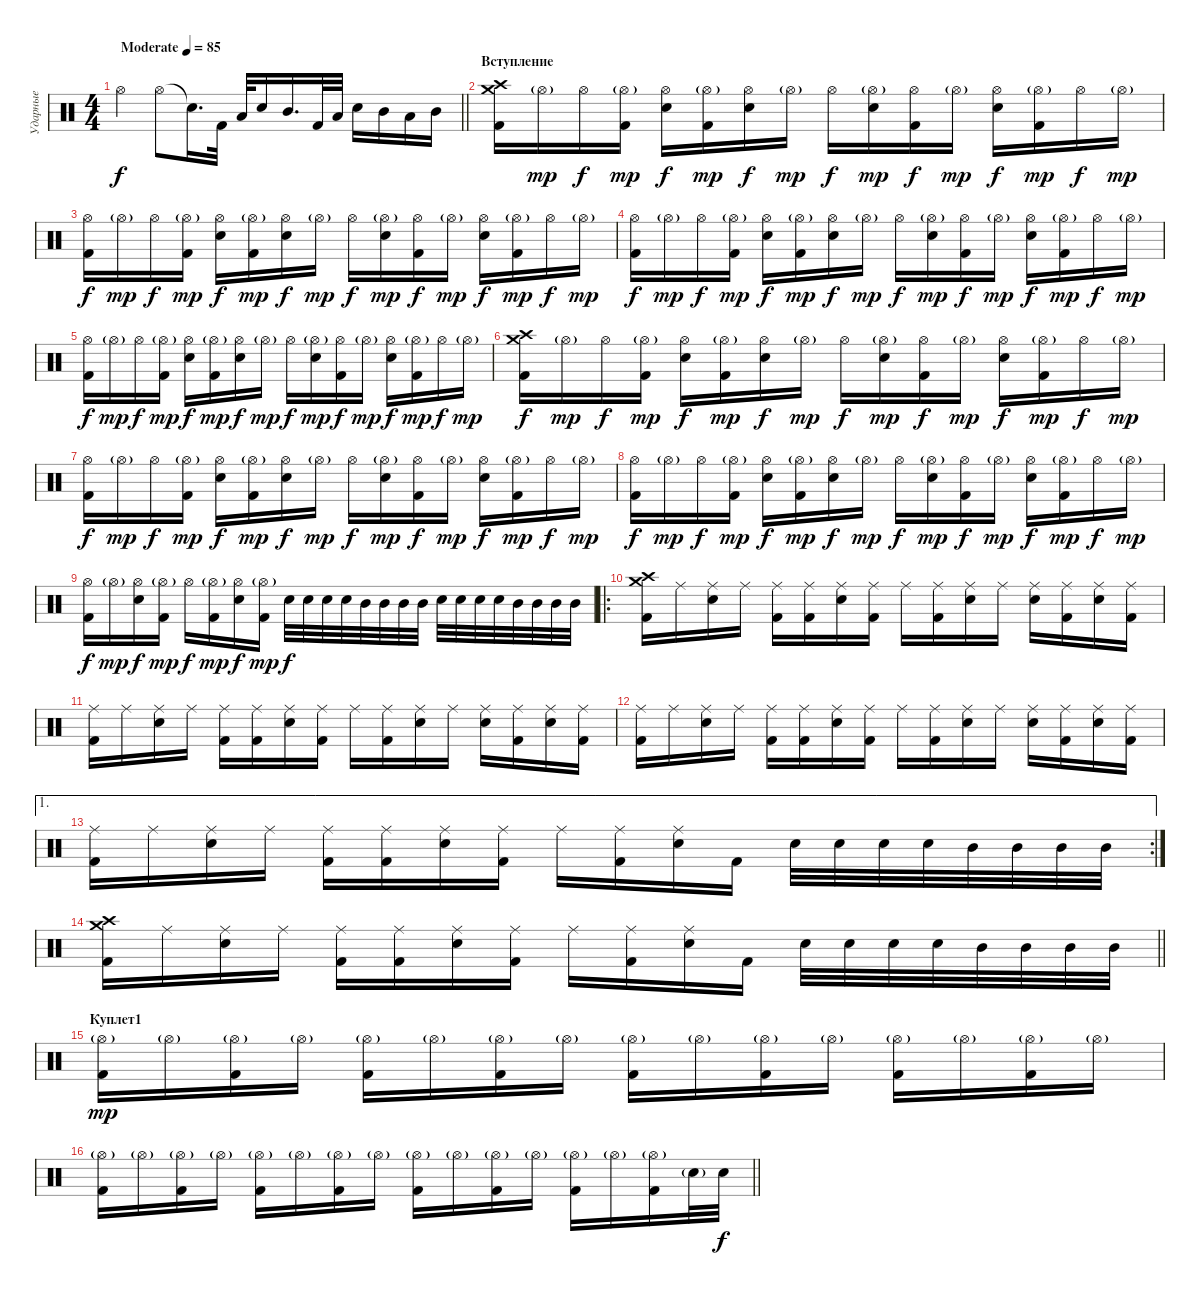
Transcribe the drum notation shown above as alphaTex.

\track ("Ударные" "Ударные") {instrument percussion}
\staff {score}
\articulation defaults
\ts (4 4)
\tempo (85 "Moderate")
\clef neutral
\barLineRight lightlight
\ks c "Hi-Hat (open)".4{dy f} "Hi-Hat (open)".8 "Snare (hit)"{t}.16{d} "Kick (hit) 2".32 "Low Tom (hit)".32 "Electric Snare (hit)".16 "Mid Tom (hit)".16{d} "Kick (hit) 2".32 "Low Tom (hit)".32 "Electric Snare (hit)".16 "Mid Tom (hit)".16 "Low Tom (hit)".16 "Mid Tom (hit)".16
|
\section ("" "Вступление")
("Crash high (hit)" "Crash medium (hit)" "Kick (hit) 2").16 "Hi-Hat (open)"{g}.16{dy mp} "Hi-Hat (open)".16{dy f} ("Hi-Hat (open)"{g} "Kick (hit) 2").16{dy mp} ("Hi-Hat (open)" "Electric Snare (hit)").16{dy f} ("Hi-Hat (open)"{g} "Kick (hit) 2").16{dy mp} ("Hi-Hat (open)" "Electric Snare (hit)").16{dy f} "Hi-Hat (open)"{g}.16{dy mp} "Hi-Hat (open)".16{dy f} ("Hi-Hat (open)"{g} "Electric Snare (hit)").16{dy mp} ("Hi-Hat (open)" "Kick (hit) 2").16{dy f} "Hi-Hat (open)"{g}.16{dy mp} ("Hi-Hat (open)" "Electric Snare (hit)").16{dy f} ("Hi-Hat (open)"{g} "Kick (hit) 2").16{dy mp} "Hi-Hat (open)".16{dy f} "Hi-Hat (open)"{g}.16{dy mp} |
("Hi-Hat (open)" "Kick (hit) 2").16{dy f} "Hi-Hat (open)"{g}.16{dy mp} "Hi-Hat (open)".16{dy f} ("Hi-Hat (open)"{g} "Kick (hit) 2").16{dy mp} ("Hi-Hat (open)" "Electric Snare (hit)").16{dy f} ("Hi-Hat (open)"{g} "Kick (hit) 2").16{dy mp} ("Hi-Hat (open)" "Electric Snare (hit)").16{dy f} "Hi-Hat (open)"{g}.16{dy mp} "Hi-Hat (open)".16{dy f} ("Hi-Hat (open)"{g} "Electric Snare (hit)").16{dy mp} ("Hi-Hat (open)" "Kick (hit) 2").16{dy f} "Hi-Hat (open)"{g}.16{dy mp} ("Hi-Hat (open)" "Electric Snare (hit)").16{dy f} ("Hi-Hat (open)"{g} "Kick (hit) 2").16{dy mp} "Hi-Hat (open)".16{dy f} "Hi-Hat (open)"{g}.16{dy mp} |
("Hi-Hat (open)" "Kick (hit) 2").16{dy f} "Hi-Hat (open)"{g}.16{dy mp} "Hi-Hat (open)".16{dy f} ("Hi-Hat (open)"{g} "Kick (hit) 2").16{dy mp} ("Hi-Hat (open)" "Electric Snare (hit)").16{dy f} ("Hi-Hat (open)"{g} "Kick (hit) 2").16{dy mp} ("Hi-Hat (open)" "Electric Snare (hit)").16{dy f} "Hi-Hat (open)"{g}.16{dy mp} "Hi-Hat (open)".16{dy f} ("Hi-Hat (open)"{g} "Electric Snare (hit)").16{dy mp} ("Hi-Hat (open)" "Kick (hit) 2").16{dy f} "Hi-Hat (open)"{g}.16{dy mp} ("Hi-Hat (open)" "Electric Snare (hit)").16{dy f} ("Hi-Hat (open)"{g} "Kick (hit) 2").16{dy mp} "Hi-Hat (open)".16{dy f} "Hi-Hat (open)"{g}.16{dy mp} |
("Hi-Hat (open)" "Kick (hit) 2").16{dy f} "Hi-Hat (open)"{g}.16{dy mp} "Hi-Hat (open)".16{dy f} ("Hi-Hat (open)"{g} "Kick (hit) 2").16{dy mp} ("Hi-Hat (open)" "Electric Snare (hit)").16{dy f} ("Hi-Hat (open)"{g} "Kick (hit) 2").16{dy mp} ("Hi-Hat (open)" "Electric Snare (hit)").16{dy f} "Hi-Hat (open)"{g}.16{dy mp} "Hi-Hat (open)".16{dy f} ("Hi-Hat (open)"{g} "Electric Snare (hit)").16{dy mp} ("Hi-Hat (open)" "Kick (hit) 2").16{dy f} "Hi-Hat (open)"{g}.16{dy mp} ("Hi-Hat (open)" "Electric Snare (hit)").16{dy f} ("Hi-Hat (open)"{g} "Kick (hit) 2").16{dy mp} "Hi-Hat (open)".16{dy f} "Hi-Hat (open)"{g}.16{dy mp} |
("Crash high (hit)" "Crash medium (hit)" "Kick (hit) 2").16{dy f} "Hi-Hat (open)"{g}.16{dy mp} "Hi-Hat (open)".16{dy f} ("Hi-Hat (open)"{g} "Kick (hit) 2").16{dy mp} ("Hi-Hat (open)" "Electric Snare (hit)").16{dy f} ("Hi-Hat (open)"{g} "Kick (hit) 2").16{dy mp} ("Hi-Hat (open)" "Electric Snare (hit)").16{dy f} "Hi-Hat (open)"{g}.16{dy mp} "Hi-Hat (open)".16{dy f} ("Hi-Hat (open)"{g} "Electric Snare (hit)").16{dy mp} ("Hi-Hat (open)" "Kick (hit) 2").16{dy f} "Hi-Hat (open)"{g}.16{dy mp} ("Hi-Hat (open)" "Electric Snare (hit)").16{dy f} ("Hi-Hat (open)"{g} "Kick (hit) 2").16{dy mp} "Hi-Hat (open)".16{dy f} "Hi-Hat (open)"{g}.16{dy mp} |
("Hi-Hat (open)" "Kick (hit) 2").16{dy f} "Hi-Hat (open)"{g}.16{dy mp} "Hi-Hat (open)".16{dy f} ("Hi-Hat (open)"{g} "Kick (hit) 2").16{dy mp} ("Hi-Hat (open)" "Electric Snare (hit)").16{dy f} ("Hi-Hat (open)"{g} "Kick (hit) 2").16{dy mp} ("Hi-Hat (open)" "Electric Snare (hit)").16{dy f} "Hi-Hat (open)"{g}.16{dy mp} "Hi-Hat (open)".16{dy f} ("Hi-Hat (open)"{g} "Electric Snare (hit)").16{dy mp} ("Hi-Hat (open)" "Kick (hit) 2").16{dy f} "Hi-Hat (open)"{g}.16{dy mp} ("Hi-Hat (open)" "Electric Snare (hit)").16{dy f} ("Hi-Hat (open)"{g} "Kick (hit) 2").16{dy mp} "Hi-Hat (open)".16{dy f} "Hi-Hat (open)"{g}.16{dy mp} |
("Hi-Hat (open)" "Kick (hit) 2").16{dy f} "Hi-Hat (open)"{g}.16{dy mp} "Hi-Hat (open)".16{dy f} ("Hi-Hat (open)"{g} "Kick (hit) 2").16{dy mp} ("Hi-Hat (open)" "Electric Snare (hit)").16{dy f} ("Hi-Hat (open)"{g} "Kick (hit) 2").16{dy mp} ("Hi-Hat (open)" "Electric Snare (hit)").16{dy f} "Hi-Hat (open)"{g}.16{dy mp} "Hi-Hat (open)".16{dy f} ("Hi-Hat (open)"{g} "Electric Snare (hit)").16{dy mp} ("Hi-Hat (open)" "Kick (hit) 2").16{dy f} "Hi-Hat (open)"{g}.16{dy mp} ("Hi-Hat (open)" "Electric Snare (hit)").16{dy f} ("Hi-Hat (open)"{g} "Kick (hit) 2").16{dy mp} "Hi-Hat (open)".16{dy f} "Hi-Hat (open)"{g}.16{dy mp} |
("Hi-Hat (open)" "Kick (hit) 2").16{dy f} "Hi-Hat (open)"{g}.16{dy mp} ("Hi-Hat (open)" "Electric Snare (hit)").16{dy f} ("Hi-Hat (open)"{g} "Kick (hit) 2").16{dy mp} "Hi-Hat (open)".16{dy f} ("Hi-Hat (open)"{g} "Kick (hit) 2").16{dy mp} ("Hi-Hat (open)" "Electric Snare (hit)").16{dy f} ("Hi-Hat (open)"{g} "Kick (hit) 2").16{dy mp} "Electric Snare (hit)".32{dy f} "Electric Snare (hit)".32 "Electric Snare (hit)".32 "Electric Snare (hit)".32 "Mid Tom (hit)".32 "Mid Tom (hit)".32 "Mid Tom (hit)".32 "Mid Tom (hit)".32 "Electric Snare (hit)".32 "Electric Snare (hit)".32 "Electric Snare (hit)".32 "Electric Snare (hit)".32 "Mid Tom (hit)".32 "Mid Tom (hit)".32 "Mid Tom (hit)".32 "Mid Tom (hit)".32 |
\ro
("Crash high (hit)" "Crash medium (hit)" "Kick (hit) 2").16 "Ride (middle)".16 ("Ride (middle)" "Electric Snare (hit)").16 "Ride (middle)".16 ("Ride (middle)" "Kick (hit) 2").16 ("Ride (middle)" "Kick (hit) 2").16 ("Ride (middle)" "Electric Snare (hit)").16 ("Ride (middle)" "Kick (hit) 2").16 "Ride (middle)".16 ("Ride (middle)" "Kick (hit) 2").16 ("Ride (middle)" "Electric Snare (hit)").16 "Ride (middle)".16 ("Ride (middle)" "Electric Snare (hit)").16 ("Ride (middle)" "Kick (hit) 2").16 ("Ride (middle)" "Electric Snare (hit)").16 ("Ride (middle)" "Kick (hit) 2").16 |
("Ride (middle)" "Kick (hit) 2").16 "Ride (middle)".16 ("Ride (middle)" "Electric Snare (hit)").16 "Ride (middle)".16 ("Ride (middle)" "Kick (hit) 2").16 ("Ride (middle)" "Kick (hit) 2").16 ("Ride (middle)" "Electric Snare (hit)").16 ("Ride (middle)" "Kick (hit) 2").16 "Ride (middle)".16 ("Ride (middle)" "Kick (hit) 2").16 ("Ride (middle)" "Electric Snare (hit)").16 "Ride (middle)".16 ("Ride (middle)" "Electric Snare (hit)").16 ("Ride (middle)" "Kick (hit) 2").16 ("Ride (middle)" "Electric Snare (hit)").16 ("Ride (middle)" "Kick (hit) 2").16 |
("Ride (middle)" "Kick (hit) 2").16 "Ride (middle)".16 ("Ride (middle)" "Electric Snare (hit)").16 "Ride (middle)".16 ("Ride (middle)" "Kick (hit) 2").16 ("Ride (middle)" "Kick (hit) 2").16 ("Ride (middle)" "Electric Snare (hit)").16 ("Ride (middle)" "Kick (hit) 2").16 "Ride (middle)".16 ("Ride (middle)" "Kick (hit) 2").16 ("Ride (middle)" "Electric Snare (hit)").16 "Ride (middle)".16 ("Ride (middle)" "Electric Snare (hit)").16 ("Ride (middle)" "Kick (hit) 2").16 ("Ride (middle)" "Electric Snare (hit)").16 ("Ride (middle)" "Kick (hit) 2").16 |
\ae 1
\rc 2
("Ride (middle)" "Kick (hit) 2").16 "Ride (middle)".16 ("Ride (middle)" "Electric Snare (hit)").16 "Ride (middle)".16 ("Ride (middle)" "Kick (hit) 2").16 ("Ride (middle)" "Kick (hit) 2").16 ("Ride (middle)" "Electric Snare (hit)").16 ("Ride (middle)" "Kick (hit) 2").16 "Ride (middle)".16 ("Ride (middle)" "Kick (hit) 2").16 ("Ride (middle)" "Electric Snare (hit)").16 "Kick (hit) 2".16 "Electric Snare (hit)".32 "Electric Snare (hit)".32 "Electric Snare (hit)".32 "Electric Snare (hit)".32 "Mid Tom (hit)".32 "Mid Tom (hit)".32 "Mid Tom (hit)".32 "Mid Tom (hit)".32 |
\barLineRight lightlight
("Crash high (hit)" "Crash medium (hit)" "Kick (hit) 2").16 "Ride (middle)".16 ("Ride (middle)" "Electric Snare (hit)").16 "Ride (middle)".16 ("Ride (middle)" "Kick (hit) 2").16 ("Ride (middle)" "Kick (hit) 2").16 ("Ride (middle)" "Electric Snare (hit)").16 ("Ride (middle)" "Kick (hit) 2").16 "Ride (middle)".16 ("Ride (middle)" "Kick (hit) 2").16 ("Ride (middle)" "Electric Snare (hit)").16 "Kick (hit) 2".16 "Electric Snare (hit)".32 "Electric Snare (hit)".32 "Electric Snare (hit)".32 "Electric Snare (hit)".32 "Mid Tom (hit)".32 "Mid Tom (hit)".32 "Mid Tom (hit)".32 "Mid Tom (hit)".32 |
\section ("" "Куплет1")
("Hi-Hat (open)"{g} "Kick (hit) 2").16{dy mp} "Hi-Hat (open)"{g}.16 ("Hi-Hat (open)"{g} "Kick (hit) 2").16 "Hi-Hat (open)"{g}.16 ("Hi-Hat (open)"{g} "Kick (hit) 2").16 "Hi-Hat (open)"{g}.16 ("Hi-Hat (open)"{g} "Kick (hit) 2").16 "Hi-Hat (open)"{g}.16 ("Hi-Hat (open)"{g} "Kick (hit) 2").16 "Hi-Hat (open)"{g}.16 ("Hi-Hat (open)"{g} "Kick (hit) 2").16 "Hi-Hat (open)"{g}.16 ("Hi-Hat (open)"{g} "Kick (hit) 2").16 "Hi-Hat (open)"{g}.16 ("Hi-Hat (open)"{g} "Kick (hit) 2").16 "Hi-Hat (open)"{g}.16 |
\barLineRight lightlight
("Hi-Hat (open)"{g} "Kick (hit) 2").16 "Hi-Hat (open)"{g}.16 ("Hi-Hat (open)"{g} "Kick (hit) 2").16 "Hi-Hat (open)"{g}.16 ("Hi-Hat (open)"{g} "Kick (hit) 2").16 "Hi-Hat (open)"{g}.16 ("Hi-Hat (open)"{g} "Kick (hit) 2").16 "Hi-Hat (open)"{g}.16 ("Hi-Hat (open)"{g} "Kick (hit) 2").16 "Hi-Hat (open)"{g}.16 ("Hi-Hat (open)"{g} "Kick (hit) 2").16 "Hi-Hat (open)"{g}.16 ("Hi-Hat (open)"{g} "Kick (hit) 2").16 "Hi-Hat (open)"{g}.16 ("Hi-Hat (open)"{g} "Kick (hit) 2").16 "Electric Snare (hit)"{g}.32 "Electric Snare (hit)".32{dy f}
